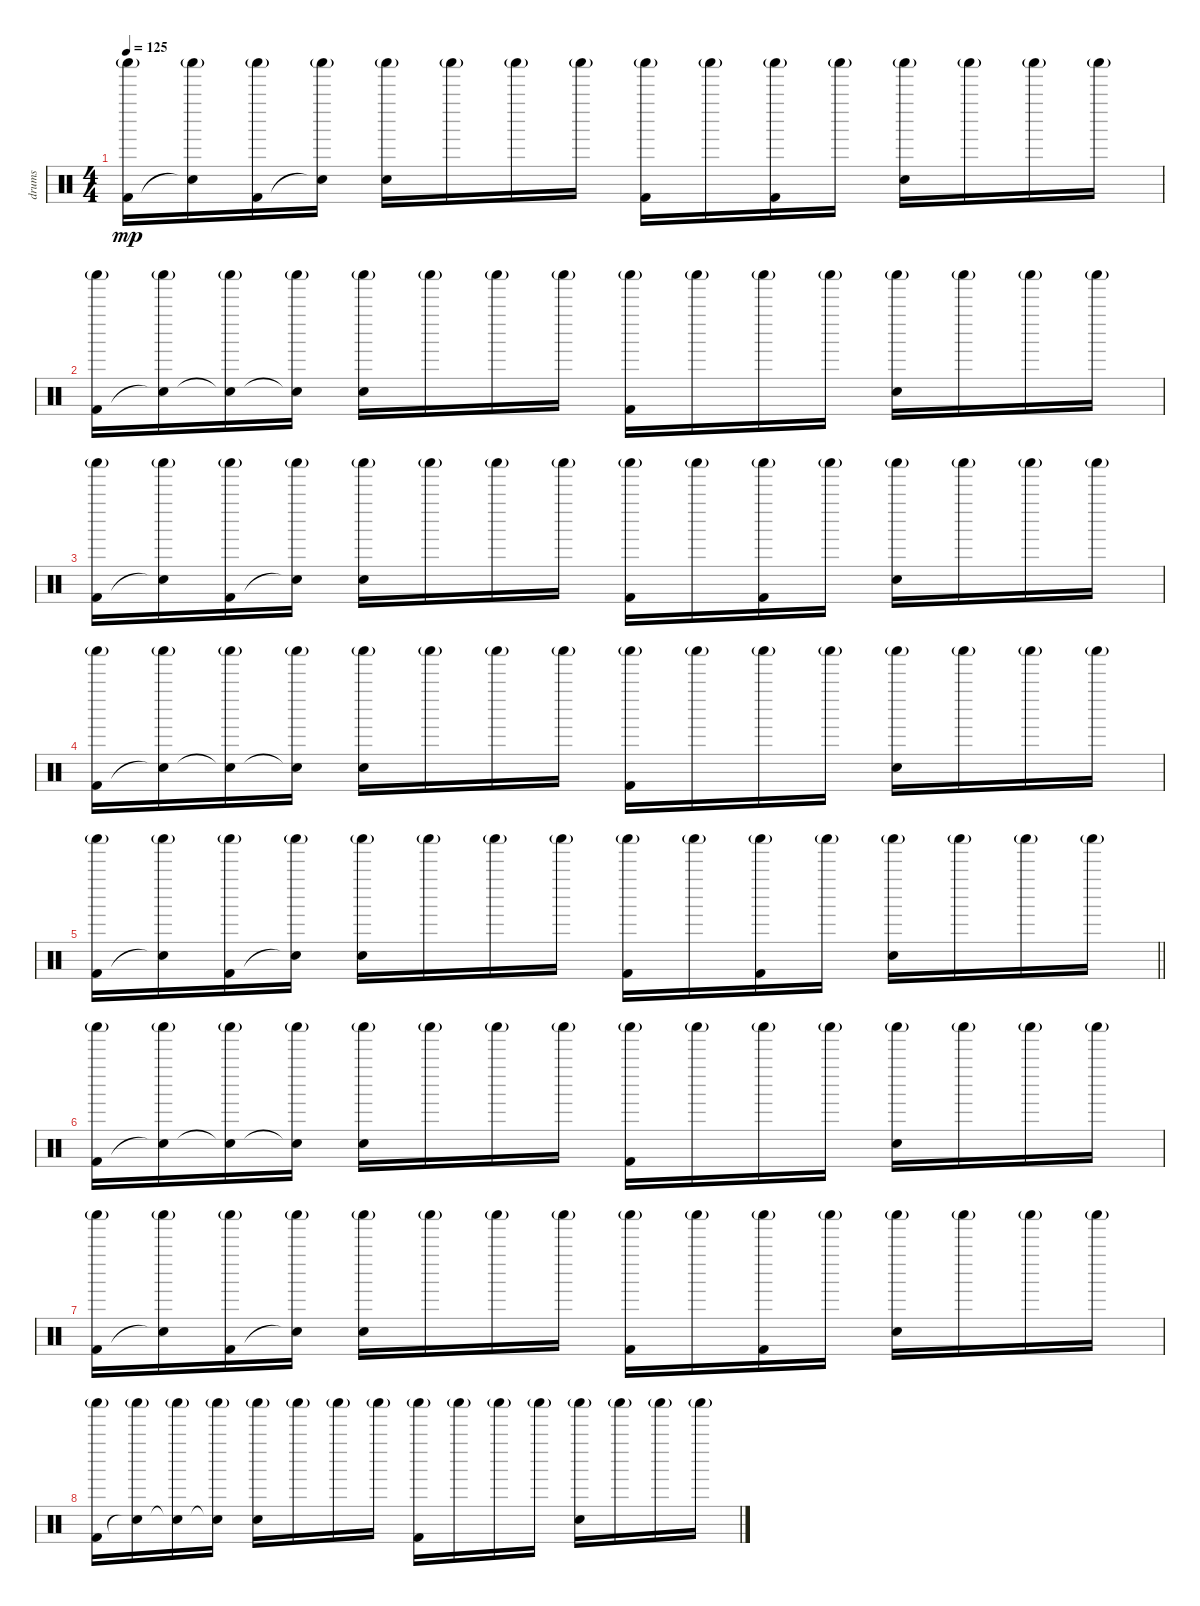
\track ("drums" "drums") {instrument percussion}
\staff {score}
\articulation defaults
\ts (4 4)
\tempo 125
\clef neutral
\ks c
("Shaker (hit)"{g} "Kick (hit) 2").16{dy mp} ("Shaker (hit)"{g} "Snare (hit)"{t}).16 ("Shaker (hit)"{g} "Kick (hit) 2").16 ("Shaker (hit)"{g} "Snare (hit)"{t}).16 ("Shaker (hit)"{g} "Snare (hit) 2").16 "Shaker (hit)"{g}.16 "Shaker (hit)"{g}.16 "Shaker (hit)"{g}.16 ("Shaker (hit)"{g} "Kick (hit) 2").16 "Shaker (hit)"{g}.16 ("Shaker (hit)"{g} "Kick (hit) 2").16 "Shaker (hit)"{g}.16 ("Shaker (hit)"{g} "Snare (hit) 2").16 "Shaker (hit)"{g}.16 "Shaker (hit)"{g}.16 "Shaker (hit)"{g}.16 |
("Shaker (hit)"{g} "Kick (hit) 2").16 ("Shaker (hit)"{g} "Snare (hit)"{t}).16 ("Shaker (hit)"{g} "Snare (hit)"{t}).16 ("Shaker (hit)"{g} "Snare (hit)"{t}).16 ("Shaker (hit)"{g} "Snare (hit) 2").16 "Shaker (hit)"{g}.16 "Shaker (hit)"{g}.16 "Shaker (hit)"{g}.16 ("Shaker (hit)"{g} "Kick (hit) 2").16 "Shaker (hit)"{g}.16 "Shaker (hit)"{g}.16 "Shaker (hit)"{g}.16 ("Shaker (hit)"{g} "Snare (hit) 2").16 "Shaker (hit)"{g}.16 "Shaker (hit)"{g}.16 "Shaker (hit)"{g}.16 |
("Shaker (hit)"{g} "Kick (hit) 2").16 ("Shaker (hit)"{g} "Snare (hit)"{t}).16 ("Shaker (hit)"{g} "Kick (hit) 2").16 ("Shaker (hit)"{g} "Snare (hit)"{t}).16 ("Shaker (hit)"{g} "Snare (hit) 2").16 "Shaker (hit)"{g}.16 "Shaker (hit)"{g}.16 "Shaker (hit)"{g}.16 ("Shaker (hit)"{g} "Kick (hit) 2").16 "Shaker (hit)"{g}.16 ("Shaker (hit)"{g} "Kick (hit) 2").16 "Shaker (hit)"{g}.16 ("Shaker (hit)"{g} "Snare (hit) 2").16 "Shaker (hit)"{g}.16 "Shaker (hit)"{g}.16 "Shaker (hit)"{g}.16 |
("Shaker (hit)"{g} "Kick (hit) 2").16 ("Shaker (hit)"{g} "Snare (hit)"{t}).16 ("Shaker (hit)"{g} "Snare (hit)"{t}).16 ("Shaker (hit)"{g} "Snare (hit)"{t}).16 ("Shaker (hit)"{g} "Snare (hit) 2").16 "Shaker (hit)"{g}.16 "Shaker (hit)"{g}.16 "Shaker (hit)"{g}.16 ("Shaker (hit)"{g} "Kick (hit) 2").16 "Shaker (hit)"{g}.16 "Shaker (hit)"{g}.16 "Shaker (hit)"{g}.16 ("Shaker (hit)"{g} "Snare (hit) 2").16 "Shaker (hit)"{g}.16 "Shaker (hit)"{g}.16 "Shaker (hit)"{g}.16 |
\barLineRight lightlight
("Shaker (hit)"{g} "Kick (hit) 2").16 ("Shaker (hit)"{g} "Snare (hit)"{t}).16 ("Shaker (hit)"{g} "Kick (hit) 2").16 ("Shaker (hit)"{g} "Snare (hit)"{t}).16 ("Shaker (hit)"{g} "Snare (hit) 2").16 "Shaker (hit)"{g}.16 "Shaker (hit)"{g}.16 "Shaker (hit)"{g}.16 ("Shaker (hit)"{g} "Kick (hit) 2").16 "Shaker (hit)"{g}.16 ("Shaker (hit)"{g} "Kick (hit) 2").16 "Shaker (hit)"{g}.16 ("Shaker (hit)"{g} "Snare (hit) 2").16 "Shaker (hit)"{g}.16 "Shaker (hit)"{g}.16 "Shaker (hit)"{g}.16 |
("Shaker (hit)"{g} "Kick (hit) 2").16 ("Shaker (hit)"{g} "Snare (hit)"{t}).16 ("Shaker (hit)"{g} "Snare (hit)"{t}).16 ("Shaker (hit)"{g} "Snare (hit)"{t}).16 ("Shaker (hit)"{g} "Snare (hit) 2").16 "Shaker (hit)"{g}.16 "Shaker (hit)"{g}.16 "Shaker (hit)"{g}.16 ("Shaker (hit)"{g} "Kick (hit) 2").16 "Shaker (hit)"{g}.16 "Shaker (hit)"{g}.16 "Shaker (hit)"{g}.16 ("Shaker (hit)"{g} "Snare (hit) 2").16 "Shaker (hit)"{g}.16 "Shaker (hit)"{g}.16 "Shaker (hit)"{g}.16 |
("Shaker (hit)"{g} "Kick (hit) 2").16 ("Shaker (hit)"{g} "Snare (hit)"{t}).16 ("Shaker (hit)"{g} "Kick (hit) 2").16 ("Shaker (hit)"{g} "Snare (hit)"{t}).16 ("Shaker (hit)"{g} "Snare (hit) 2").16 "Shaker (hit)"{g}.16 "Shaker (hit)"{g}.16 "Shaker (hit)"{g}.16 ("Shaker (hit)"{g} "Kick (hit) 2").16 "Shaker (hit)"{g}.16 ("Shaker (hit)"{g} "Kick (hit) 2").16 "Shaker (hit)"{g}.16 ("Shaker (hit)"{g} "Snare (hit) 2").16 "Shaker (hit)"{g}.16 "Shaker (hit)"{g}.16 "Shaker (hit)"{g}.16 |
("Shaker (hit)"{g} "Kick (hit) 2").16 ("Shaker (hit)"{g} "Snare (hit)"{t}).16 ("Shaker (hit)"{g} "Snare (hit)"{t}).16 ("Shaker (hit)"{g} "Snare (hit)"{t}).16 ("Shaker (hit)"{g} "Snare (hit) 2").16 "Shaker (hit)"{g}.16 "Shaker (hit)"{g}.16 "Shaker (hit)"{g}.16 ("Shaker (hit)"{g} "Kick (hit) 2").16 "Shaker (hit)"{g}.16 "Shaker (hit)"{g}.16 "Shaker (hit)"{g}.16 ("Shaker (hit)"{g} "Snare (hit) 2").16 "Shaker (hit)"{g}.16 "Shaker (hit)"{g}.16 "Shaker (hit)"{g}.16
